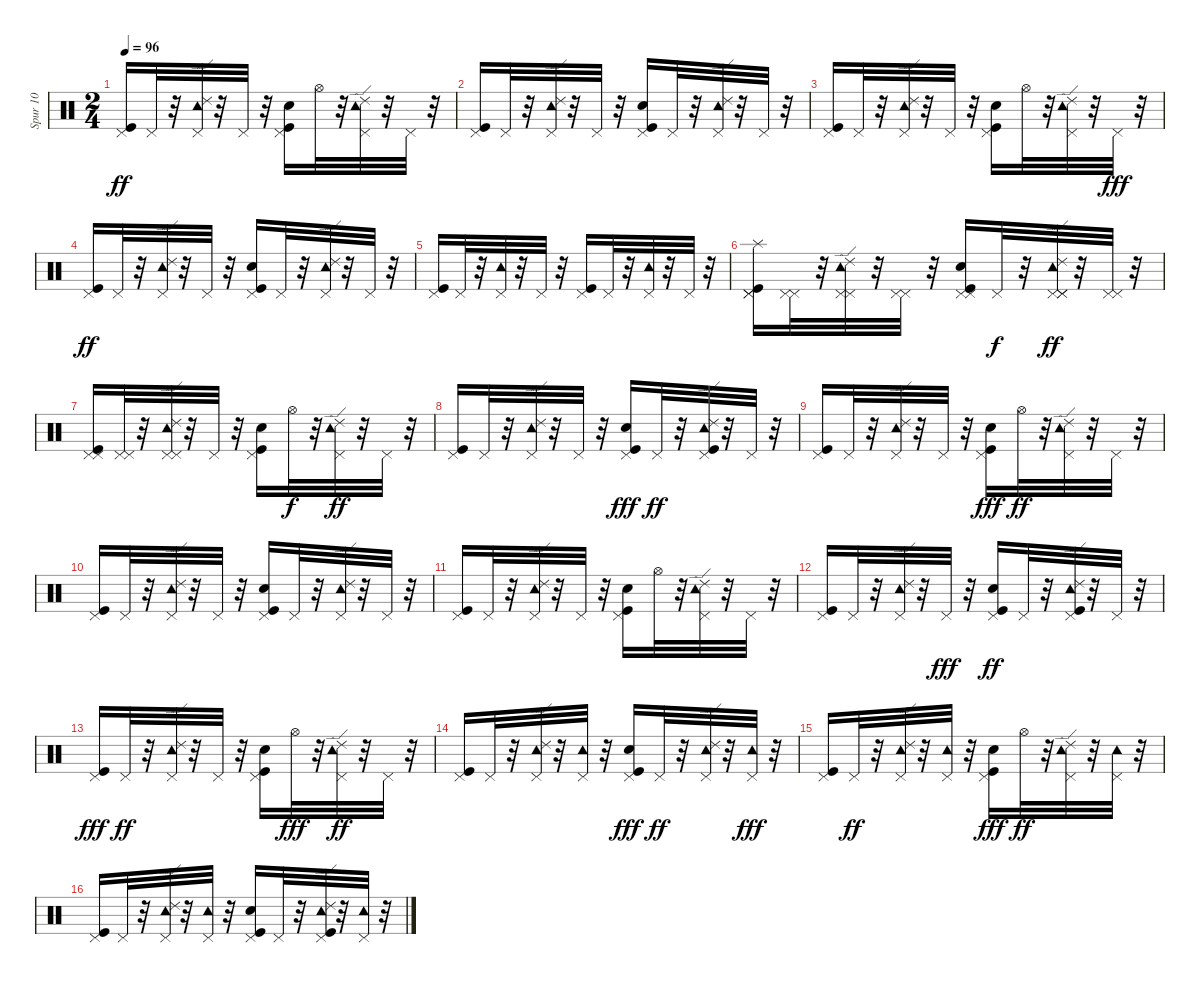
\track ("Spur 10" "Spur 10") {instrument percussion}
\staff {score}
\articulation defaults
\ts (2 4)
\tempo 96
\clef neutral
\ks c
("Kick (hit)" "Pedal Hi-Hat (hit)").16{dy ff} "Pedal Hi-Hat (hit)".32 r.32 ("Tambourine (hit)" "Pedal Hi-Hat (hit)" "Ride (edge) 2").32 r.32 "Pedal Hi-Hat (hit)".32 r.32 ("Kick (hit)" "Snare (hit) 2" "Pedal Hi-Hat (hit)").16 "Hi-Hat (open)".32 r.32 ("Tambourine (hit)" "Pedal Hi-Hat (hit)" "Ride (edge) 2").32 r.32 "Pedal Hi-Hat (hit)".32 r.32 |
("Kick (hit)" "Pedal Hi-Hat (hit)").16 "Pedal Hi-Hat (hit)".32 r.32 ("Tambourine (hit)" "Pedal Hi-Hat (hit)" "Ride (edge) 2").32 r.32 "Pedal Hi-Hat (hit)".32 r.32 ("Kick (hit)" "Snare (hit) 2" "Pedal Hi-Hat (hit)").16 "Pedal Hi-Hat (hit)".32 r.32 ("Tambourine (hit)" "Pedal Hi-Hat (hit)" "Ride (edge) 2").32 r.32 "Pedal Hi-Hat (hit)".32 r.32 |
("Kick (hit)" "Pedal Hi-Hat (hit)").16 "Pedal Hi-Hat (hit)".32 r.32 ("Tambourine (hit)" "Pedal Hi-Hat (hit)" "Ride (edge) 2").32 r.32 "Pedal Hi-Hat (hit)".32 r.32 ("Snare (hit) 2" "Kick (hit)" "Pedal Hi-Hat (hit)").16 "Hi-Hat (open)".32 r.32 ("Tambourine (hit)" "Pedal Hi-Hat (hit)" "Ride (edge) 2").32 r.32 "Pedal Hi-Hat (hit)".32{dy fff} r.32 |
("Kick (hit)" "Pedal Hi-Hat (hit)").16{dy ff} "Pedal Hi-Hat (hit)".32 r.32 ("Tambourine (hit)" "Pedal Hi-Hat (hit)" "Ride (edge) 2").32 r.32 "Pedal Hi-Hat (hit)".32 r.32 ("Kick (hit)" "Snare (hit) 2" "Pedal Hi-Hat (hit)").16 "Pedal Hi-Hat (hit)".32 r.32 ("Tambourine (hit)" "Pedal Hi-Hat (hit)" "Ride (edge) 2").32 r.32 "Pedal Hi-Hat (hit)".32 r.32 |
("Kick (hit)" "Pedal Hi-Hat (hit)").16 "Pedal Hi-Hat (hit)".32 r.32 ("Tambourine (hit)" "Pedal Hi-Hat (hit)").32 r.32 "Pedal Hi-Hat (hit)".32 r.32 ("Kick (hit)" "Pedal Hi-Hat (hit)").16 "Pedal Hi-Hat (hit)".32 r.32 ("Tambourine (hit)" "Pedal Hi-Hat (hit)").32 r.32 "Pedal Hi-Hat (hit)".32 r.32 |
("Kick (hit)" "Pedal Hi-Hat (hit)" "Pedal Hi-Hat (hit)" "Splash (hit)").16 ("Pedal Hi-Hat (hit)" "Pedal Hi-Hat (hit)").32 r.32 ("Tambourine (hit)" "Pedal Hi-Hat (hit)" "Ride (edge) 2" "Pedal Hi-Hat (hit)").32 r.32 ("Pedal Hi-Hat (hit)" "Pedal Hi-Hat (hit)").32 r.32 ("Snare (hit) 2" "Kick (hit)" "Pedal Hi-Hat (hit)" "Pedal Hi-Hat (hit)").16 "Pedal Hi-Hat (hit)".32{dy f} r.32 ("Tambourine (hit)" "Pedal Hi-Hat (hit)" "Pedal Hi-Hat (hit)" "Ride (edge) 2" "Pedal Hi-Hat (hit)").32{dy ff} r.32 ("Pedal Hi-Hat (hit)" "Pedal Hi-Hat (hit)").32 r.32 |
("Kick (hit)" "Pedal Hi-Hat (hit)" "Pedal Hi-Hat (hit)").16 ("Pedal Hi-Hat (hit)" "Pedal Hi-Hat (hit)").32 r.32 ("Tambourine (hit)" "Pedal Hi-Hat (hit)" "Ride (edge) 2" "Pedal Hi-Hat (hit)").32 r.32 "Pedal Hi-Hat (hit)".32 r.32 ("Snare (hit) 2" "Kick (hit)" "Pedal Hi-Hat (hit)").16 "Hi-Hat (open)".32{dy f} r.32 ("Tambourine (hit)" "Pedal Hi-Hat (hit)" "Ride (edge) 2").32{dy ff} r.32 "Pedal Hi-Hat (hit)".32 r.32 |
("Kick (hit)" "Pedal Hi-Hat (hit)").16 "Pedal Hi-Hat (hit)".32 r.32 ("Tambourine (hit)" "Pedal Hi-Hat (hit)" "Ride (edge) 2").32 r.32 "Pedal Hi-Hat (hit)".32 r.32 ("Kick (hit)" "Snare (hit) 2" "Pedal Hi-Hat (hit)").16{dy fff} "Pedal Hi-Hat (hit)".32{dy ff} r.32 ("Kick (hit)" "Tambourine (hit)" "Pedal Hi-Hat (hit)" "Ride (edge) 2").32 r.32 "Pedal Hi-Hat (hit)".32 r.32 |
("Kick (hit)" "Pedal Hi-Hat (hit)").16 "Pedal Hi-Hat (hit)".32 r.32 ("Tambourine (hit)" "Pedal Hi-Hat (hit)" "Ride (edge) 2").32 r.32 "Pedal Hi-Hat (hit)".32 r.32 ("Kick (hit)" "Snare (hit) 2" "Pedal Hi-Hat (hit)").16{dy fff} "Hi-Hat (open)".32{dy ff} r.32 ("Tambourine (hit)" "Pedal Hi-Hat (hit)" "Ride (edge) 2").32 r.32 "Pedal Hi-Hat (hit)".32 r.32 |
("Kick (hit)" "Pedal Hi-Hat (hit)").16 "Pedal Hi-Hat (hit)".32 r.32 ("Tambourine (hit)" "Pedal Hi-Hat (hit)" "Ride (edge) 2").32 r.32 "Pedal Hi-Hat (hit)".32 r.32 ("Snare (hit) 2" "Kick (hit)" "Pedal Hi-Hat (hit)").16 "Pedal Hi-Hat (hit)".32 r.32 ("Tambourine (hit)" "Pedal Hi-Hat (hit)" "Ride (edge) 2").32 r.32 "Pedal Hi-Hat (hit)".32 r.32 |
("Kick (hit)" "Pedal Hi-Hat (hit)").16 "Pedal Hi-Hat (hit)".32 r.32 ("Tambourine (hit)" "Pedal Hi-Hat (hit)" "Ride (edge) 2").32 r.32 "Pedal Hi-Hat (hit)".32 r.32 ("Snare (hit) 2" "Kick (hit)" "Pedal Hi-Hat (hit)").16 "Hi-Hat (open)".32 r.32 ("Tambourine (hit)" "Pedal Hi-Hat (hit)" "Ride (edge) 2").32 r.32 "Pedal Hi-Hat (hit)".32 r.32 |
("Kick (hit)" "Pedal Hi-Hat (hit)").16 "Pedal Hi-Hat (hit)".32 r.32 ("Tambourine (hit)" "Pedal Hi-Hat (hit)" "Ride (edge) 2").32 r.32 "Pedal Hi-Hat (hit)".32{dy fff} r.32 ("Snare (hit) 2" "Kick (hit)" "Pedal Hi-Hat (hit)").16{dy ff} "Pedal Hi-Hat (hit)".32 r.32 ("Kick (hit)" "Tambourine (hit)" "Pedal Hi-Hat (hit)" "Ride (edge) 2").32 r.32 "Pedal Hi-Hat (hit)".32 r.32 |
("Kick (hit)" "Pedal Hi-Hat (hit)").16{dy fff} "Pedal Hi-Hat (hit)".32{dy ff} r.32 ("Tambourine (hit)" "Pedal Hi-Hat (hit)" "Ride (edge) 2").32 r.32 "Pedal Hi-Hat (hit)".32 r.32 ("Snare (hit) 2" "Kick (hit)" "Pedal Hi-Hat (hit)").16 "Hi-Hat (open)".32{dy fff} r.32 ("Tambourine (hit)" "Pedal Hi-Hat (hit)" "Ride (edge) 2").32{dy ff} r.32 "Pedal Hi-Hat (hit)".32 r.32 |
("Kick (hit)" "Pedal Hi-Hat (hit)").16 "Pedal Hi-Hat (hit)".32 r.32 ("Tambourine (hit)" "Pedal Hi-Hat (hit)" "Ride (edge) 2").32 r.32 ("Tambourine (hit)" "Pedal Hi-Hat (hit)").32 r.32 ("Kick (hit)" "Snare (hit) 2" "Pedal Hi-Hat (hit)").16{dy fff} "Pedal Hi-Hat (hit)".32{dy ff} r.32 ("Tambourine (hit)" "Pedal Hi-Hat (hit)" "Ride (edge) 2").32 r.32 ("Tambourine (hit)" "Pedal Hi-Hat (hit)").32{dy fff} r.32 |
("Kick (hit)" "Pedal Hi-Hat (hit)").16 "Pedal Hi-Hat (hit)".32{dy ff} r.32 ("Tambourine (hit)" "Pedal Hi-Hat (hit)" "Ride (edge) 2").32 r.32 ("Tambourine (hit)" "Pedal Hi-Hat (hit)").32 r.32 ("Snare (hit) 2" "Kick (hit)" "Pedal Hi-Hat (hit)").16{dy fff} "Hi-Hat (open)".32{dy ff} r.32 ("Tambourine (hit)" "Pedal Hi-Hat (hit)" "Ride (edge) 2").32 r.32 ("Tambourine (hit)" "Pedal Hi-Hat (hit)").32 r.32 |
("Kick (hit)" "Pedal Hi-Hat (hit)").16 "Pedal Hi-Hat (hit)".32 r.32 ("Tambourine (hit)" "Pedal Hi-Hat (hit)" "Ride (edge) 2").32 r.32 ("Tambourine (hit)" "Pedal Hi-Hat (hit)").32 r.32 ("Snare (hit) 2" "Kick (hit)" "Pedal Hi-Hat (hit)").16 "Pedal Hi-Hat (hit)".32 r.32 ("Kick (hit)" "Tambourine (hit)" "Pedal Hi-Hat (hit)" "Ride (edge) 2").32 r.32 ("Tambourine (hit)" "Pedal Hi-Hat (hit)").32 r.32
